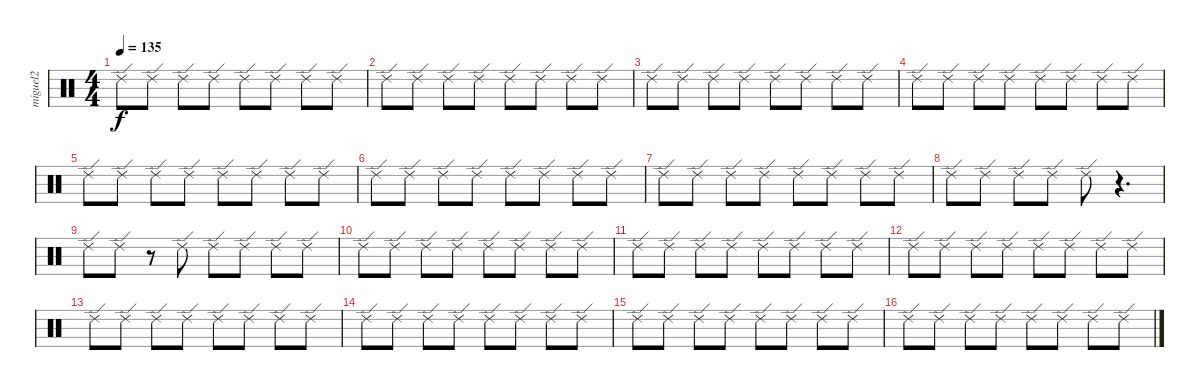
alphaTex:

\track ("miguel2" "miguel2") {instrument percussion}
\staff {score}
\articulation defaults
\ts (4 4)
\tempo 135
\clef neutral
\ks c "Ride (edge) 2".8{dy f} "Ride (edge) 2".8 "Ride (edge) 2".8 "Ride (edge) 2".8 "Ride (edge) 2".8 "Ride (edge) 2".8 "Ride (edge) 2".8 "Ride (edge) 2".8
|
"Ride (edge) 2".8 "Ride (edge) 2".8 "Ride (edge) 2".8 "Ride (edge) 2".8 "Ride (edge) 2".8 "Ride (edge) 2".8 "Ride (edge) 2".8 "Ride (edge) 2".8 |
"Ride (edge) 2".8 "Ride (edge) 2".8 "Ride (edge) 2".8 "Ride (edge) 2".8 "Ride (edge) 2".8 "Ride (edge) 2".8 "Ride (edge) 2".8 "Ride (edge) 2".8 |
"Ride (edge) 2".8 "Ride (edge) 2".8 "Ride (edge) 2".8 "Ride (edge) 2".8 "Ride (edge) 2".8 "Ride (edge) 2".8 "Ride (edge) 2".8 "Ride (edge) 2".8 |
"Ride (edge) 2".8 "Ride (edge) 2".8 "Ride (edge) 2".8 "Ride (edge) 2".8 "Ride (edge) 2".8 "Ride (edge) 2".8 "Ride (edge) 2".8 "Ride (edge) 2".8 |
"Ride (edge) 2".8 "Ride (edge) 2".8 "Ride (edge) 2".8 "Ride (edge) 2".8 "Ride (edge) 2".8 "Ride (edge) 2".8 "Ride (edge) 2".8 "Ride (edge) 2".8 |
"Ride (edge) 2".8 "Ride (edge) 2".8 "Ride (edge) 2".8 "Ride (edge) 2".8 "Ride (edge) 2".8 "Ride (edge) 2".8 "Ride (edge) 2".8 "Ride (edge) 2".8 |
"Ride (edge) 2".8 "Ride (edge) 2".8 "Ride (edge) 2".8 "Ride (edge) 2".8 "Ride (edge) 2".8 r.4{d} |
"Ride (edge) 2".8 "Ride (edge) 2".8 r.8 "Ride (edge) 2".8 "Ride (edge) 2".8 "Ride (edge) 2".8 "Ride (edge) 2".8 "Ride (edge) 2".8 |
"Ride (edge) 2".8 "Ride (edge) 2".8 "Ride (edge) 2".8 "Ride (edge) 2".8 "Ride (edge) 2".8 "Ride (edge) 2".8 "Ride (edge) 2".8 "Ride (edge) 2".8 |
"Ride (edge) 2".8 "Ride (edge) 2".8 "Ride (edge) 2".8 "Ride (edge) 2".8 "Ride (edge) 2".8 "Ride (edge) 2".8 "Ride (edge) 2".8 "Ride (edge) 2".8 |
"Ride (edge) 2".8 "Ride (edge) 2".8 "Ride (edge) 2".8 "Ride (edge) 2".8 "Ride (edge) 2".8 "Ride (edge) 2".8 "Ride (edge) 2".8 "Ride (edge) 2".8 |
"Ride (edge) 2".8 "Ride (edge) 2".8 "Ride (edge) 2".8 "Ride (edge) 2".8 "Ride (edge) 2".8 "Ride (edge) 2".8 "Ride (edge) 2".8 "Ride (edge) 2".8 |
"Ride (edge) 2".8 "Ride (edge) 2".8 "Ride (edge) 2".8 "Ride (edge) 2".8 "Ride (edge) 2".8 "Ride (edge) 2".8 "Ride (edge) 2".8 "Ride (edge) 2".8 |
"Ride (edge) 2".8 "Ride (edge) 2".8 "Ride (edge) 2".8 "Ride (edge) 2".8 "Ride (edge) 2".8 "Ride (edge) 2".8 "Ride (edge) 2".8 "Ride (edge) 2".8 |
"Ride (edge) 2".8 "Ride (edge) 2".8 "Ride (edge) 2".8 "Ride (edge) 2".8 "Ride (edge) 2".8 "Ride (edge) 2".8 "Ride (edge) 2".8 "Ride (edge) 2".8
